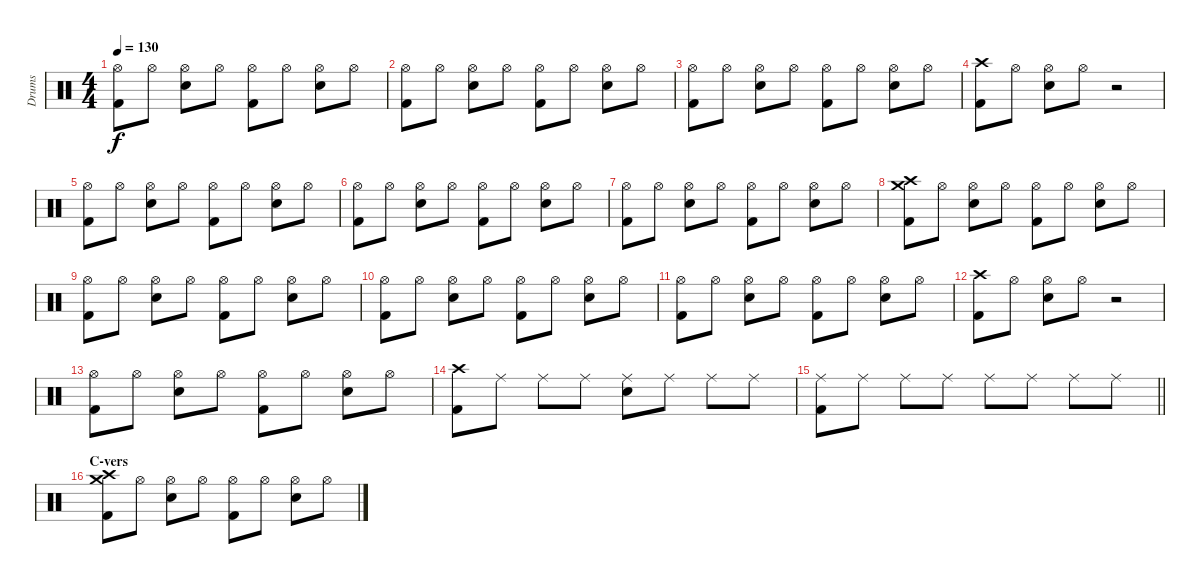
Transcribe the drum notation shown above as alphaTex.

\track ("Drums" "Drums") {instrument percussion}
\staff {score}
\articulation defaults
\ts (4 4)
\tempo 130
\clef neutral
\ks c
("Hi-Hat (open)" "Kick (hit) 2").8{dy f} "Hi-Hat (open)".8 ("Hi-Hat (open)" "Snare (hit) 2").8 "Hi-Hat (open)".8 ("Hi-Hat (open)" "Kick (hit) 2").8 "Hi-Hat (open)".8 ("Hi-Hat (open)" "Snare (hit) 2").8 "Hi-Hat (open)".8 |
("Hi-Hat (open)" "Kick (hit) 2").8 "Hi-Hat (open)".8 ("Hi-Hat (open)" "Snare (hit) 2").8 "Hi-Hat (open)".8 ("Hi-Hat (open)" "Kick (hit) 2").8 "Hi-Hat (open)".8 ("Hi-Hat (open)" "Snare (hit) 2").8 "Hi-Hat (open)".8 |
("Hi-Hat (open)" "Kick (hit) 2").8 "Hi-Hat (open)".8 ("Hi-Hat (open)" "Snare (hit) 2").8 "Hi-Hat (open)".8 ("Hi-Hat (open)" "Kick (hit) 2").8 "Hi-Hat (open)".8 ("Hi-Hat (open)" "Snare (hit) 2").8 "Hi-Hat (open)".8 |
("Crash high (hit)" "Kick (hit) 2").8 "Hi-Hat (open)".8 ("Hi-Hat (open)" "Snare (hit) 2").8 "Hi-Hat (open)".8 r.2 |
("Hi-Hat (open)" "Kick (hit) 2").8 "Hi-Hat (open)".8 ("Hi-Hat (open)" "Snare (hit) 2").8 "Hi-Hat (open)".8 ("Hi-Hat (open)" "Kick (hit) 2").8 "Hi-Hat (open)".8 ("Hi-Hat (open)" "Snare (hit) 2").8 "Hi-Hat (open)".8 |
("Hi-Hat (open)" "Kick (hit) 2").8 "Hi-Hat (open)".8 ("Hi-Hat (open)" "Snare (hit) 2").8 "Hi-Hat (open)".8 ("Hi-Hat (open)" "Kick (hit) 2").8 "Hi-Hat (open)".8 ("Hi-Hat (open)" "Snare (hit) 2").8 "Hi-Hat (open)".8 |
("Hi-Hat (open)" "Kick (hit) 2").8 "Hi-Hat (open)".8 ("Hi-Hat (open)" "Snare (hit) 2").8 "Hi-Hat (open)".8 ("Hi-Hat (open)" "Kick (hit) 2").8 "Hi-Hat (open)".8 ("Hi-Hat (open)" "Snare (hit) 2").8 "Hi-Hat (open)".8 |
("Crash medium (hit)" "Crash high (hit)" "Kick (hit) 2").8 "Hi-Hat (open)".8 ("Hi-Hat (open)" "Snare (hit) 2").8 "Hi-Hat (open)".8 ("Hi-Hat (open)" "Kick (hit) 2").8 "Hi-Hat (open)".8 ("Hi-Hat (open)" "Snare (hit) 2").8 "Hi-Hat (open)".8 |
("Hi-Hat (open)" "Kick (hit) 2").8 "Hi-Hat (open)".8 ("Hi-Hat (open)" "Snare (hit) 2").8 "Hi-Hat (open)".8 ("Hi-Hat (open)" "Kick (hit) 2").8 "Hi-Hat (open)".8 ("Hi-Hat (open)" "Snare (hit) 2").8 "Hi-Hat (open)".8 |
("Hi-Hat (open)" "Kick (hit) 2").8 "Hi-Hat (open)".8 ("Hi-Hat (open)" "Snare (hit) 2").8 "Hi-Hat (open)".8 ("Hi-Hat (open)" "Kick (hit) 2").8 "Hi-Hat (open)".8 ("Hi-Hat (open)" "Snare (hit) 2").8 "Hi-Hat (open)".8 |
("Hi-Hat (open)" "Kick (hit) 2").8 "Hi-Hat (open)".8 ("Hi-Hat (open)" "Snare (hit) 2").8 "Hi-Hat (open)".8 ("Hi-Hat (open)" "Kick (hit) 2").8 "Hi-Hat (open)".8 ("Hi-Hat (open)" "Snare (hit) 2").8 "Hi-Hat (open)".8 |
("Crash high (hit)" "Kick (hit) 2").8 "Hi-Hat (open)".8 ("Hi-Hat (open)" "Snare (hit) 2").8 "Hi-Hat (open)".8 r.2 |
("Hi-Hat (open)" "Kick (hit) 2").8 "Hi-Hat (open)".8 ("Hi-Hat (open)" "Snare (hit) 2").8 "Hi-Hat (open)".8 ("Hi-Hat (open)" "Kick (hit) 2").8 "Hi-Hat (open)".8 ("Hi-Hat (open)" "Snare (hit) 2").8 "Hi-Hat (open)".8 |
("Crash high (hit)" "Kick (hit) 2").8 "Ride (middle)".8 "Ride (middle)".8 "Ride (middle)".8 ("Ride (middle)" "Snare (hit) 2").8 "Ride (middle)".8 "Ride (middle)".8 "Ride (middle)".8 |
\barLineRight lightlight
("Ride (middle)" "Kick (hit) 2").8 "Ride (middle)".8 "Ride (middle)".8 "Ride (middle)".8 "Ride (middle)".8 "Ride (middle)".8 "Ride (middle)".8 "Ride (middle)".8 |
\section ("" "C-vers")
("Crash medium (hit)" "Crash high (hit)" "Kick (hit) 2").8 "Hi-Hat (open)".8 ("Hi-Hat (open)" "Snare (hit) 2").8 "Hi-Hat (open)".8 ("Hi-Hat (open)" "Kick (hit) 2").8 "Hi-Hat (open)".8 ("Hi-Hat (open)" "Snare (hit) 2").8 "Hi-Hat (open)".8
